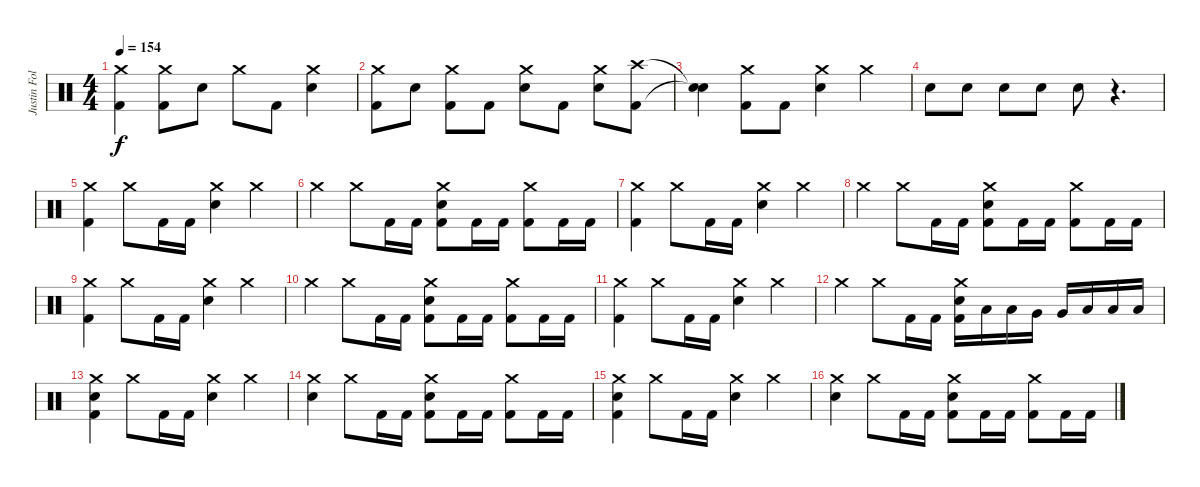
\track ("Justin Foley" "Justin Fol") {instrument percussion}
\staff {score}
\articulation defaults
\ts (4 4)
\tempo 154
\clef neutral
\ks c
("Crash medium (hit)" "Kick (hit) 2").4{dy f} ("Crash medium (hit)" "Kick (hit) 2").8 "Electric Snare (hit)".8 "Crash medium (hit)".8 "Kick (hit) 2".8 ("Crash medium (hit)" "Electric Snare (hit)").4 |
("Crash medium (hit)" "Kick (hit) 2").8 "Electric Snare (hit)".8 ("Crash medium (hit)" "Kick (hit) 2").8 "Kick (hit) 2".8 ("Crash medium (hit)" "Electric Snare (hit)").8 "Kick (hit) 2".8 ("Crash medium (hit)" "Electric Snare (hit)").8 ("Crash high (hit)" "Kick (hit) 2").8 |
("Snare (hit)"{t} "Snare (hit)"{t}).4 ("Crash medium (hit)" "Kick (hit) 2").8 "Kick (hit) 2".8 ("Crash medium (hit)" "Electric Snare (hit)").4 "Crash medium (hit)".4 |
"Electric Snare (hit)".8 "Electric Snare (hit)".8 "Electric Snare (hit)".8 "Electric Snare (hit)".8 "Electric Snare (hit)".8 r.4{d} |
("Crash medium (hit)" "Kick (hit) 2").4 "Crash medium (hit)".8 "Kick (hit) 2".16 "Kick (hit) 2".16 ("Crash medium (hit)" "Electric Snare (hit)").4 "Crash medium (hit)".4 |
"Crash medium (hit)".4 "Crash medium (hit)".8 "Kick (hit) 2".16 "Kick (hit) 2".16 ("Crash medium (hit)" "Electric Snare (hit)" "Kick (hit) 2").8 "Kick (hit) 2".16 "Kick (hit) 2".16 ("Crash medium (hit)" "Kick (hit) 2").8 "Kick (hit) 2".16 "Kick (hit) 2".16 |
("Crash medium (hit)" "Kick (hit) 2").4 "Crash medium (hit)".8 "Kick (hit) 2".16 "Kick (hit) 2".16 ("Crash medium (hit)" "Electric Snare (hit)").4 "Crash medium (hit)".4 |
"Crash medium (hit)".4 "Crash medium (hit)".8 "Kick (hit) 2".16 "Kick (hit) 2".16 ("Crash medium (hit)" "Electric Snare (hit)" "Kick (hit) 2").8 "Kick (hit) 2".16 "Kick (hit) 2".16 ("Crash medium (hit)" "Kick (hit) 2").8 "Kick (hit) 2".16 "Kick (hit) 2".16 |
("Crash medium (hit)" "Kick (hit) 2").4 "Crash medium (hit)".8 "Kick (hit) 2".16 "Kick (hit) 2".16 ("Crash medium (hit)" "Electric Snare (hit)").4 "Crash medium (hit)".4 |
"Crash medium (hit)".4 "Crash medium (hit)".8 "Kick (hit) 2".16 "Kick (hit) 2".16 ("Crash medium (hit)" "Electric Snare (hit)" "Kick (hit) 2").8 "Kick (hit) 2".16 "Kick (hit) 2".16 ("Crash medium (hit)" "Kick (hit) 2").8 "Kick (hit) 2".16 "Kick (hit) 2".16 |
("Crash medium (hit)" "Kick (hit) 2").4 "Crash medium (hit)".8 "Kick (hit) 2".16 "Kick (hit) 2".16 ("Crash medium (hit)" "Electric Snare (hit)").4 "Crash medium (hit)".4 |
"Crash medium (hit)".4 "Crash medium (hit)".8 "Kick (hit) 2".16 "Kick (hit) 2".16 ("Crash medium (hit)" "Electric Snare (hit)" "Kick (hit) 2").16 "Low Tom (hit)".16 "Low Tom (hit)".16 "Very Low Tom (hit)".16 "Very Low Tom (hit)".16 "Low Floor Tom (hit)".16 "Low Floor Tom (hit)".16 "Low Floor Tom (hit)".16 |
("Crash medium (hit)" "Electric Snare (hit)" "Kick (hit) 2").4 "Crash medium (hit)".8 "Kick (hit) 2".16 "Kick (hit) 2".16 ("Crash medium (hit)" "Electric Snare (hit)").4 "Crash medium (hit)".4 |
("Crash medium (hit)" "Electric Snare (hit)").4 "Crash medium (hit)".8 "Kick (hit) 2".16 "Kick (hit) 2".16 ("Crash medium (hit)" "Electric Snare (hit)" "Kick (hit) 2").8 "Kick (hit) 2".16 "Kick (hit) 2".16 ("Crash medium (hit)" "Kick (hit) 2").8 "Kick (hit) 2".16 "Kick (hit) 2".16 |
("Crash medium (hit)" "Electric Snare (hit)" "Kick (hit) 2").4 "Crash medium (hit)".8 "Kick (hit) 2".16 "Kick (hit) 2".16 ("Crash medium (hit)" "Electric Snare (hit)").4 "Crash medium (hit)".4 |
("Crash medium (hit)" "Electric Snare (hit)").4 "Crash medium (hit)".8 "Kick (hit) 2".16 "Kick (hit) 2".16 ("Crash medium (hit)" "Electric Snare (hit)" "Kick (hit) 2").8 "Kick (hit) 2".16 "Kick (hit) 2".16 ("Crash medium (hit)" "Kick (hit) 2").8 "Kick (hit) 2".16 "Kick (hit) 2".16
